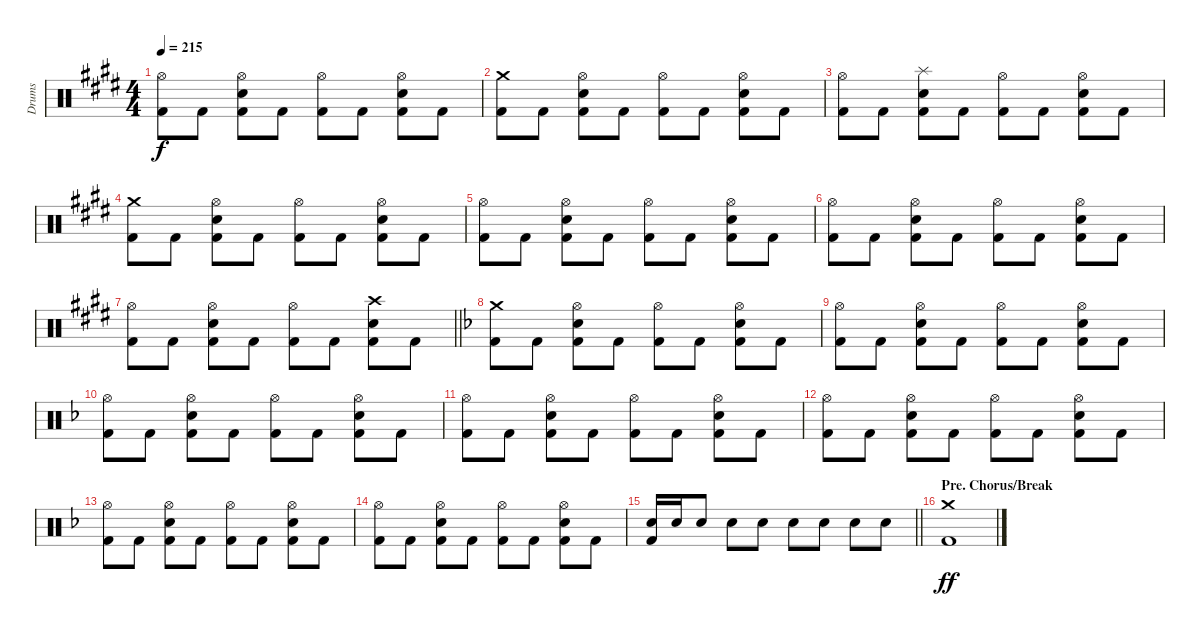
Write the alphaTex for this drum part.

\track ("Drums" "Drums") {instrument percussion}
\staff {score}
\articulation defaults
\ts (4 4)
\tempo 215
\clef neutral
\ks e
("Hi-Hat (open)" "Kick (hit) 2").8{dy f} "Kick (hit) 2".8 ("Hi-Hat (open)" "Snare (hit) 2" "Kick (hit) 2").8 "Kick (hit) 2".8 ("Hi-Hat (open)" "Kick (hit) 2").8 "Kick (hit) 2".8 ("Hi-Hat (open)" "Snare (hit) 2" "Kick (hit) 2").8 "Kick (hit) 2".8 |
("Crash medium (hit)" "Kick (hit) 2").8 "Kick (hit) 2".8 ("Hi-Hat (open)" "Snare (hit) 2" "Kick (hit) 2").8 "Kick (hit) 2".8 ("Hi-Hat (open)" "Kick (hit) 2").8 "Kick (hit) 2".8 ("Hi-Hat (open)" "Snare (hit) 2" "Kick (hit) 2").8 "Kick (hit) 2".8 |
("Hi-Hat (open)" "Kick (hit) 2").8 "Kick (hit) 2".8 ("Splash (hit)" "Snare (hit) 2" "Kick (hit) 2").8 "Kick (hit) 2".8 ("Hi-Hat (open)" "Kick (hit) 2").8 "Kick (hit) 2".8 ("Hi-Hat (open)" "Snare (hit) 2" "Kick (hit) 2").8 "Kick (hit) 2".8 |
("Crash medium (hit)" "Kick (hit) 2").8 "Kick (hit) 2".8 ("Hi-Hat (open)" "Snare (hit) 2" "Kick (hit) 2").8 "Kick (hit) 2".8 ("Hi-Hat (open)" "Kick (hit) 2").8 "Kick (hit) 2".8 ("Hi-Hat (open)" "Snare (hit) 2" "Kick (hit) 2").8 "Kick (hit) 2".8 |
("Hi-Hat (open)" "Kick (hit) 2").8 "Kick (hit) 2".8 ("Hi-Hat (open)" "Snare (hit) 2" "Kick (hit) 2").8 "Kick (hit) 2".8 ("Hi-Hat (open)" "Kick (hit) 2").8 "Kick (hit) 2".8 ("Hi-Hat (open)" "Snare (hit) 2" "Kick (hit) 2").8 "Kick (hit) 2".8 |
("Hi-Hat (open)" "Kick (hit) 2").8 "Kick (hit) 2".8 ("Hi-Hat (open)" "Snare (hit) 2" "Kick (hit) 2").8 "Kick (hit) 2".8 ("Hi-Hat (open)" "Kick (hit) 2").8 "Kick (hit) 2".8 ("Hi-Hat (open)" "Snare (hit) 2" "Kick (hit) 2").8 "Kick (hit) 2".8 |
\barLineRight lightlight
("Hi-Hat (open)" "Kick (hit) 2").8 "Kick (hit) 2".8 ("Hi-Hat (open)" "Snare (hit) 2" "Kick (hit) 2").8 "Kick (hit) 2".8 ("Hi-Hat (open)" "Kick (hit) 2").8 "Kick (hit) 2".8 ("Crash high (hit)" "Snare (hit) 2" "Kick (hit) 2").8 "Kick (hit) 2".8 |
\section ("" "")
\ks f
("Crash medium (hit)" "Kick (hit) 2").8 "Kick (hit) 2".8 ("Hi-Hat (open)" "Snare (hit) 2" "Kick (hit) 2").8 "Kick (hit) 2".8 ("Hi-Hat (open)" "Kick (hit) 2").8 "Kick (hit) 2".8 ("Hi-Hat (open)" "Snare (hit) 2" "Kick (hit) 2").8 "Kick (hit) 2".8 |
("Hi-Hat (open)" "Kick (hit) 2").8 "Kick (hit) 2".8 ("Hi-Hat (open)" "Snare (hit) 2" "Kick (hit) 2").8 "Kick (hit) 2".8 ("Hi-Hat (open)" "Kick (hit) 2").8 "Kick (hit) 2".8 ("Hi-Hat (open)" "Snare (hit) 2" "Kick (hit) 2").8 "Kick (hit) 2".8 |
("Hi-Hat (open)" "Kick (hit) 2").8 "Kick (hit) 2".8 ("Hi-Hat (open)" "Snare (hit) 2" "Kick (hit) 2").8 "Kick (hit) 2".8 ("Hi-Hat (open)" "Kick (hit) 2").8 "Kick (hit) 2".8 ("Hi-Hat (open)" "Snare (hit) 2" "Kick (hit) 2").8 "Kick (hit) 2".8 |
("Hi-Hat (open)" "Kick (hit) 2").8 "Kick (hit) 2".8 ("Hi-Hat (open)" "Snare (hit) 2" "Kick (hit) 2").8 "Kick (hit) 2".8 ("Hi-Hat (open)" "Kick (hit) 2").8 "Kick (hit) 2".8 ("Hi-Hat (open)" "Snare (hit) 2" "Kick (hit) 2").8 "Kick (hit) 2".8 |
("Hi-Hat (open)" "Kick (hit) 2").8 "Kick (hit) 2".8 ("Hi-Hat (open)" "Snare (hit) 2" "Kick (hit) 2").8 "Kick (hit) 2".8 ("Hi-Hat (open)" "Kick (hit) 2").8 "Kick (hit) 2".8 ("Hi-Hat (open)" "Snare (hit) 2" "Kick (hit) 2").8 "Kick (hit) 2".8 |
("Hi-Hat (open)" "Kick (hit) 2").8 "Kick (hit) 2".8 ("Hi-Hat (open)" "Snare (hit) 2" "Kick (hit) 2").8 "Kick (hit) 2".8 ("Hi-Hat (open)" "Kick (hit) 2").8 "Kick (hit) 2".8 ("Hi-Hat (open)" "Snare (hit) 2" "Kick (hit) 2").8 "Kick (hit) 2".8 |
("Hi-Hat (open)" "Kick (hit) 2").8 "Kick (hit) 2".8 ("Hi-Hat (open)" "Snare (hit) 2" "Kick (hit) 2").8 "Kick (hit) 2".8 ("Hi-Hat (open)" "Kick (hit) 2").8 "Kick (hit) 2".8 ("Hi-Hat (open)" "Snare (hit) 2" "Kick (hit) 2").8 "Kick (hit) 2".8 |
\barLineRight lightlight
("Snare (hit) 2" "Kick (hit) 2").16 "Snare (hit) 2".16 "Snare (hit) 2".8 "Snare (hit) 2".8 "Snare (hit) 2".8 "Snare (hit) 2".8 "Snare (hit) 2".8 "Snare (hit) 2".8 "Snare (hit) 2".8 |
\section ("" "Pre. Chorus/Break")
("Crash medium (hit)" "Kick (hit) 2").1{dy ff}
